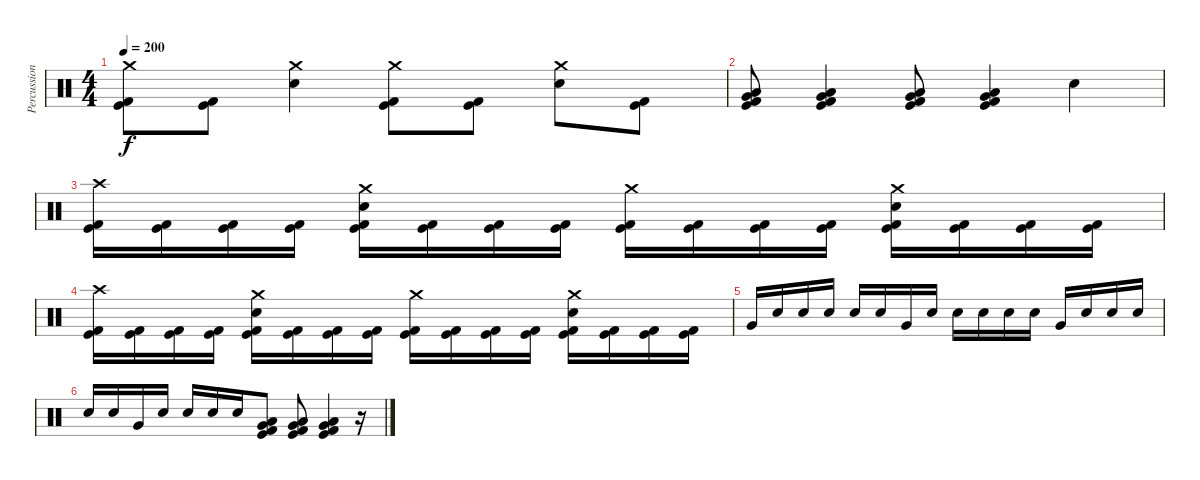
\track ("Percussions" "Percussion") {instrument percussion}
\staff {score}
\articulation defaults
\ts (4 4)
\tempo 200
\clef neutral
\ks c
("Crash medium (hit)" "Kick (hit)" "Kick (hit) 2").8{dy f} ("Kick (hit)" "Kick (hit) 2").8 ("Crash medium (hit)" "Electric Snare (hit)").4 ("Crash medium (hit)" "Kick (hit)" "Kick (hit) 2").8 ("Kick (hit)" "Kick (hit) 2").8 ("Crash medium (hit)" "Electric Snare (hit)").8 ("Kick (hit)" "Kick (hit) 2").8 |
("Very Low Tom (hit)" "Low Floor Tom (hit)" "Kick (hit)" "Kick (hit) 2").8 ("Very Low Tom (hit)" "Low Floor Tom (hit)" "Kick (hit)" "Kick (hit) 2").4 ("Very Low Tom (hit)" "Low Floor Tom (hit)" "Kick (hit)" "Kick (hit) 2").8 ("Very Low Tom (hit)" "Low Floor Tom (hit)" "Kick (hit)" "Kick (hit) 2").4 "Electric Snare (hit)".4 |
("Crash high (hit)" "Kick (hit)" "Kick (hit) 2").16 ("Kick (hit)" "Kick (hit) 2").16 ("Kick (hit)" "Kick (hit) 2").16 ("Kick (hit)" "Kick (hit) 2").16 ("Crash medium (hit)" "Electric Snare (hit)" "Kick (hit)" "Kick (hit) 2").16 ("Kick (hit)" "Kick (hit) 2").16 ("Kick (hit)" "Kick (hit) 2").16 ("Kick (hit)" "Kick (hit) 2").16 ("Crash medium (hit)" "Kick (hit)" "Kick (hit) 2").16 ("Kick (hit)" "Kick (hit) 2").16 ("Kick (hit)" "Kick (hit) 2").16 ("Kick (hit)" "Kick (hit) 2").16 ("Crash medium (hit)" "Electric Snare (hit)" "Kick (hit)" "Kick (hit) 2").16 ("Kick (hit)" "Kick (hit) 2").16 ("Kick (hit)" "Kick (hit) 2").16 ("Kick (hit)" "Kick (hit) 2").16 |
("Crash high (hit)" "Kick (hit)" "Kick (hit) 2").16 ("Kick (hit)" "Kick (hit) 2").16 ("Kick (hit)" "Kick (hit) 2").16 ("Kick (hit)" "Kick (hit) 2").16 ("Crash medium (hit)" "Electric Snare (hit)" "Kick (hit)" "Kick (hit) 2").16 ("Kick (hit)" "Kick (hit) 2").16 ("Kick (hit)" "Kick (hit) 2").16 ("Kick (hit)" "Kick (hit) 2").16 ("Crash medium (hit)" "Kick (hit)" "Kick (hit) 2").16 ("Kick (hit)" "Kick (hit) 2").16 ("Kick (hit)" "Kick (hit) 2").16 ("Kick (hit)" "Kick (hit) 2").16 ("Crash medium (hit)" "Electric Snare (hit)" "Kick (hit)" "Kick (hit) 2").16 ("Kick (hit)" "Kick (hit) 2").16 ("Kick (hit)" "Kick (hit) 2").16 ("Kick (hit)" "Kick (hit) 2").16 |
"Very Low Tom (hit)".16 "Electric Snare (hit)".16 "Electric Snare (hit)".16 "Electric Snare (hit)".16 "Electric Snare (hit)".16 "Electric Snare (hit)".16 "Very Low Tom (hit)".16 "Electric Snare (hit)".16 "Electric Snare (hit)".16 "Electric Snare (hit)".16 "Electric Snare (hit)".16 "Electric Snare (hit)".16 "Very Low Tom (hit)".16 "Electric Snare (hit)".16 "Electric Snare (hit)".16 "Electric Snare (hit)".16 |
"Electric Snare (hit)".16 "Electric Snare (hit)".16 "Very Low Tom (hit)".16 "Electric Snare (hit)".16 "Electric Snare (hit)".16 "Electric Snare (hit)".16 "Electric Snare (hit)".16 ("Very Low Tom (hit)" "Low Floor Tom (hit)" "Kick (hit)" "Kick (hit) 2").8 ("Very Low Tom (hit)" "Low Floor Tom (hit)" "Kick (hit)" "Kick (hit) 2").8 ("Very Low Tom (hit)" "Low Floor Tom (hit)" "Kick (hit)" "Kick (hit) 2").4 r.16
